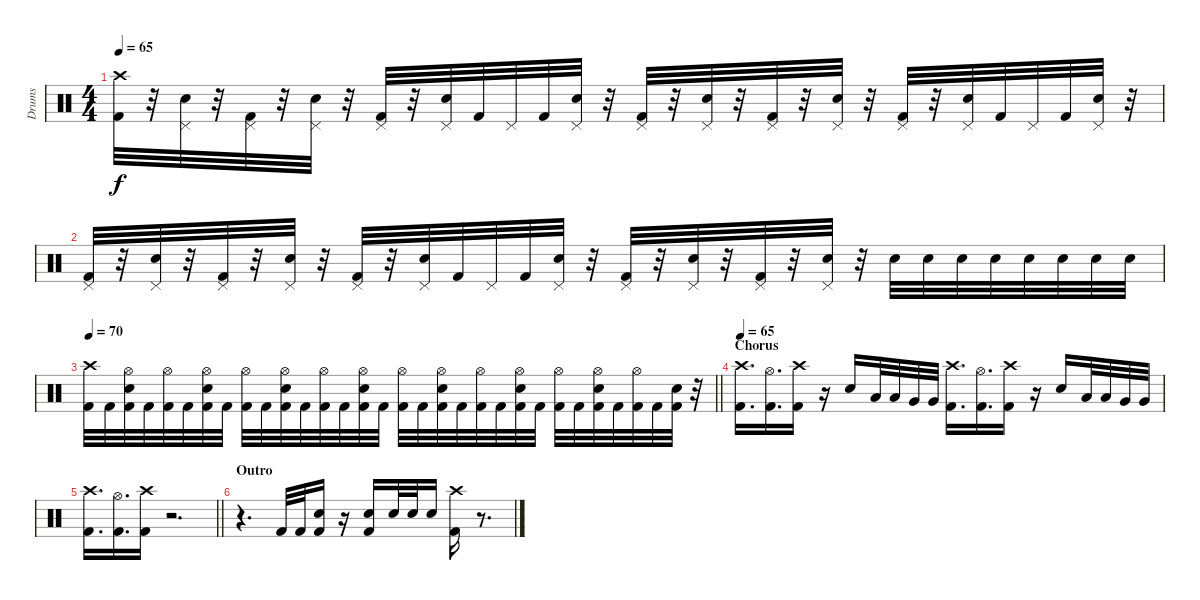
\track ("Drums" "Drums") {instrument percussion}
\staff {score}
\articulation defaults
\ts (4 4)
\tempo 65
\clef neutral
\ks c
("Crash high (hit)" "Kick (hit) 2").32{dy f} r.32 ("Pedal Hi-Hat (hit)" "Snare (hit) 2").32 r.32 ("Pedal Hi-Hat (hit)" "Kick (hit) 2").32 r.32 ("Pedal Hi-Hat (hit)" "Snare (hit) 2").32 r.32 ("Pedal Hi-Hat (hit)" "Kick (hit) 2").32 r.32 ("Pedal Hi-Hat (hit)" "Snare (hit) 2").32 "Kick (hit) 2".32 "Pedal Hi-Hat (hit)".32 "Kick (hit) 2".32 ("Pedal Hi-Hat (hit)" "Snare (hit) 2").32 r.32 ("Pedal Hi-Hat (hit)" "Kick (hit) 2").32 r.32 ("Pedal Hi-Hat (hit)" "Snare (hit) 2").32 r.32 ("Pedal Hi-Hat (hit)" "Kick (hit) 2").32 r.32 ("Pedal Hi-Hat (hit)" "Snare (hit) 2").32 r.32 ("Pedal Hi-Hat (hit)" "Kick (hit) 2").32 r.32 ("Pedal Hi-Hat (hit)" "Snare (hit) 2").32 "Kick (hit) 2".32 "Pedal Hi-Hat (hit)".32 "Kick (hit) 2".32 ("Pedal Hi-Hat (hit)" "Snare (hit) 2").32 r.32 |
("Pedal Hi-Hat (hit)" "Kick (hit) 2").32 r.32 ("Pedal Hi-Hat (hit)" "Snare (hit) 2").32 r.32 ("Pedal Hi-Hat (hit)" "Kick (hit) 2").32 r.32 ("Pedal Hi-Hat (hit)" "Snare (hit) 2").32 r.32 ("Pedal Hi-Hat (hit)" "Kick (hit) 2").32 r.32 ("Pedal Hi-Hat (hit)" "Snare (hit) 2").32 "Kick (hit) 2".32 "Pedal Hi-Hat (hit)".32 "Kick (hit) 2".32 ("Pedal Hi-Hat (hit)" "Snare (hit) 2").32 r.32 ("Pedal Hi-Hat (hit)" "Kick (hit) 2").32 r.32 ("Pedal Hi-Hat (hit)" "Snare (hit) 2").32 r.32 ("Pedal Hi-Hat (hit)" "Kick (hit) 2").32 r.32 ("Pedal Hi-Hat (hit)" "Snare (hit) 2").32 r.32 "Snare (hit) 2".32 "Snare (hit) 2".32 "Snare (hit) 2".32 "Snare (hit) 2".32 "Snare (hit) 2".32 "Snare (hit) 2".32 "Snare (hit) 2".32 "Snare (hit) 2".32 |
\tempo 70
\barLineRight lightlight
("Crash high (hit)" "Kick (hit) 2").32 "Kick (hit) 2".32 ("Hi-Hat (open)" "Snare (hit) 2" "Kick (hit) 2").32 "Kick (hit) 2".32 ("Hi-Hat (open)" "Kick (hit) 2").32 "Kick (hit) 2".32 ("Hi-Hat (open)" "Snare (hit) 2" "Kick (hit) 2").32 "Kick (hit) 2".32 ("Hi-Hat (open)" "Kick (hit) 2").32 "Kick (hit) 2".32 ("Hi-Hat (open)" "Snare (hit) 2" "Kick (hit) 2").32 "Kick (hit) 2".32 ("Hi-Hat (open)" "Kick (hit) 2").32 "Kick (hit) 2".32 ("Hi-Hat (open)" "Snare (hit) 2" "Kick (hit) 2").32 "Kick (hit) 2".32 ("Hi-Hat (open)" "Kick (hit) 2").32 "Kick (hit) 2".32 ("Hi-Hat (open)" "Snare (hit) 2" "Kick (hit) 2").32 "Kick (hit) 2".32 ("Hi-Hat (open)" "Kick (hit) 2").32 "Kick (hit) 2".32 ("Hi-Hat (open)" "Snare (hit) 2" "Kick (hit) 2").32 "Kick (hit) 2".32 ("Hi-Hat (open)" "Kick (hit) 2").32 "Kick (hit) 2".32 ("Hi-Hat (open)" "Snare (hit) 2" "Kick (hit) 2").32 "Kick (hit) 2".32 ("Hi-Hat (open)" "Kick (hit) 2").32 "Kick (hit) 2".32 ("Snare (hit) 2" "Kick (hit) 2").32 r.32 |
\section ("" "Chorus")
\tempo 65
("Crash high (hit)" "Kick (hit) 2").16{d} ("Hi-Hat (open)" "Kick (hit) 2").16{d} ("Crash high (hit)" "Kick (hit) 2").16 r.16 "Snare (hit) 2".16 "Low Tom (hit)".32 "Low Tom (hit)".32 "Very Low Tom (hit)".32 "Very Low Tom (hit)".32 ("Crash high (hit)" "Kick (hit) 2").16{d} ("Hi-Hat (open)" "Kick (hit) 2").16{d} ("Crash high (hit)" "Kick (hit) 2").16 r.16 "Snare (hit) 2".16 "Low Tom (hit)".32 "Low Tom (hit)".32 "Very Low Tom (hit)".32 "Very Low Tom (hit)".32 |
\barLineRight lightlight
("Crash high (hit)" "Kick (hit) 2").16{d} ("Hi-Hat (open)" "Kick (hit) 2").16{d} ("Crash high (hit)" "Kick (hit) 2").16 r.2{d} |
\section ("" "Outro")
r.4{d} "Kick (hit) 2".32 "Kick (hit) 2".32 ("Snare (hit) 2" "Kick (hit) 2").16 r.16 ("Snare (hit) 2" "Kick (hit) 2").16 "Snare (hit) 2".32 "Snare (hit) 2".32 "Snare (hit) 2".16 ("Crash high (hit)" "Kick (hit) 2").16 r.8{d}
